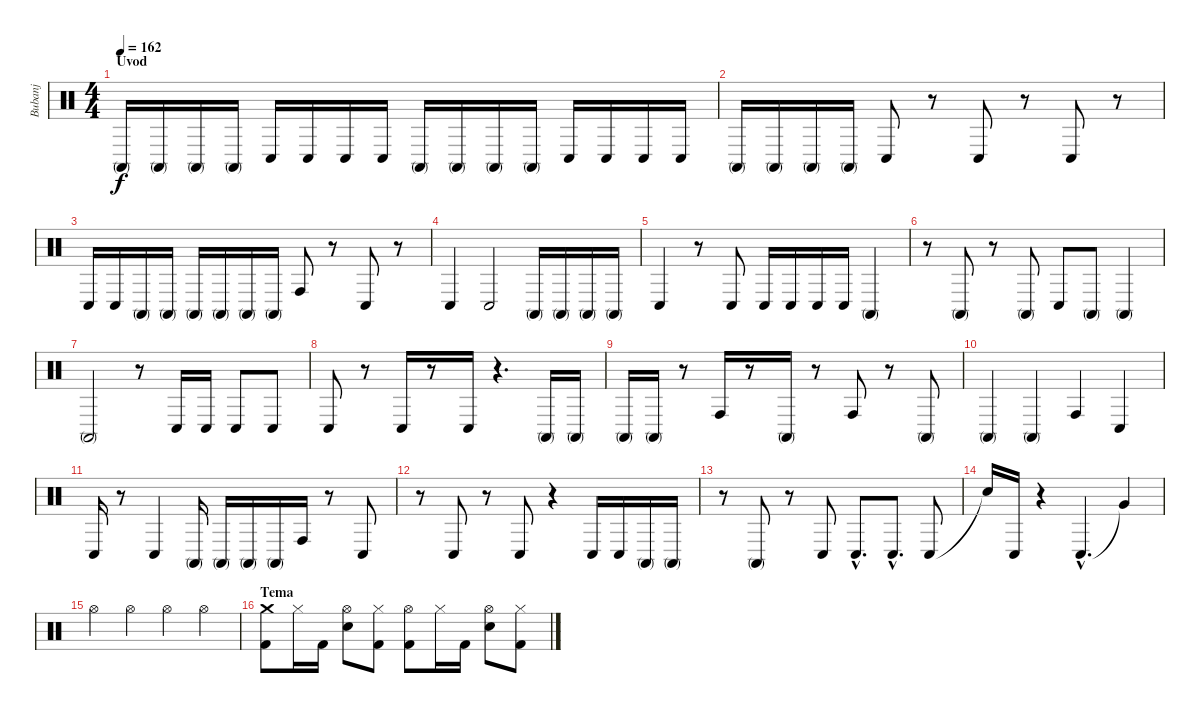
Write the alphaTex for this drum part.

\track ("Bubanj" "Bubanj") {instrument percussion}
\staff {score}
\articulation defaults
\ts (4 4)
\section ("" "Uvod")
\tempo 162
\clef neutral
\ks c "Conga high (mute)".16{dy f volume 0} "Conga high (mute)".16{volume 16} "Conga high (mute)".16 "Conga high (mute)".16 "Conga low (hit)".16 "Conga low (hit)".16 "Conga low (hit)".16 "Conga low (hit)".16 "Conga high (mute)".16 "Conga high (mute)".16 "Conga high (mute)".16 "Conga high (mute)".16 "Conga low (hit)".16 "Conga low (hit)".16 "Conga low (hit)".16 "Conga low (hit)".16
|
"Conga high (mute)".16 "Conga high (mute)".16 "Conga high (mute)".16 "Conga high (mute)".16 "Conga low (hit)".8 r.8 "Conga low (hit)".8 r.8 "Conga low (hit)".8 r.8 |
"Conga low (hit)".16 "Conga low (hit)".16 "Conga high (mute)".16 "Conga high (mute)".16 "Conga high (mute)".16 "Conga high (mute)".16 "Conga high (mute)".16 "Conga high (mute)".16 "Conga high (hit)".8 r.8 "Conga low (hit)".8 r.8 |
"Conga low (hit)".4 "Conga low (hit)".2 "Conga high (mute)".16 "Conga high (mute)".16 "Conga high (mute)".16 "Conga high (mute)".16 |
"Conga low (hit)".4 r.8 "Conga low (hit)".8 "Conga low (hit)".16 "Conga low (hit)".16 "Conga low (hit)".16 "Conga low (hit)".16 "Conga high (mute)".4 |
r.8 "Conga high (mute)".8 r.8 "Conga high (mute)".8 "Conga low (hit)".8 "Conga high (mute)".8 "Conga high (mute)".4 |
"Conga high (mute)".2 r.8 "Conga low (hit)".16 "Conga low (hit)".16 "Conga low (hit)".8 "Conga low (hit)".8 |
"Conga low (hit)".8 r.8 "Conga low (hit)".16 r.8 "Conga low (hit)".16 r.4{d} "Conga high (mute)".16 "Conga high (mute)".16 |
"Conga high (mute)".16 "Conga high (mute)".16 r.8 "Conga high (hit)".16 r.8 "Conga high (mute)".16 r.8 "Conga high (hit)".8 r.8 "Conga high (mute)".8 |
"Conga high (mute)".4 "Conga high (mute)".4 "Conga high (hit)".4 "Conga low (hit)".4 |
"Conga low (hit)".16 r.8 "Conga low (hit)".4 "Conga high (mute)".16 "Conga high (mute)".16 "Conga high (mute)".16 "Conga high (mute)".16 "Conga high (hit)".16 r.8 "Conga low (hit)".8 |
r.8 "Conga low (hit)".8 r.8 "Conga low (hit)".8 r.4 "Conga low (hit)".16 "Conga low (hit)".16 "Conga high (mute)".16 "Conga high (mute)".16 |
r.8 "Conga high (mute)".8 r.8 "Conga low (hit)".8 "Conga low (hit)"{hac}.8{d} "Conga low (hit)"{hac}.8{d} "Conga low (hit)".8 |
"Snare (hit)"{t}.16 "Conga low (hit)".16 r.4 "Conga low (hit)"{hac}.4{d} "Very Low Tom (hit)"{t}.4 |
"Hi-Hat (open)".4 "Hi-Hat (open)".4 "Hi-Hat (open)".4 "Hi-Hat (open)".4 |
\section ("" "Tema")
("Crash medium (hit)" "Kick (hit) 2").8 "Hi-Hat (closed)".16 "Kick (hit) 2".16 ("Hi-Hat (open)" "Snare (hit) 2").8 ("Hi-Hat (closed)" "Kick (hit) 2").8 ("Hi-Hat (open)" "Kick (hit) 2").8 "Hi-Hat (closed)".16 "Kick (hit) 2".16 ("Hi-Hat (open)" "Snare (hit) 2").8 ("Hi-Hat (closed)" "Kick (hit) 2").8
